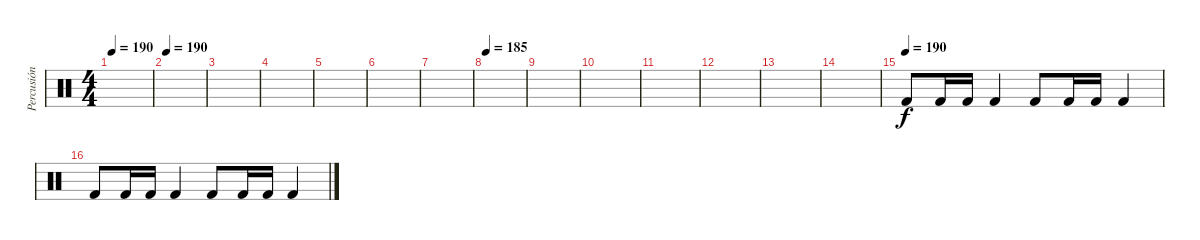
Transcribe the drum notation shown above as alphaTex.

\track ("Percusión" "Percusión") {instrument percussion}
\staff {score}
\articulation defaults
\ts (4 4)
\tempo 190
\clef neutral
\ks c
|
\tempo 190
|
|
|
|
|
|
\tempo 185
|
|
|
|
|
|
|
\tempo (190)
"Kick (hit) 2".8 "Kick (hit) 2".16 "Kick (hit) 2".16 "Kick (hit) 2".4 "Kick (hit) 2".8 "Kick (hit) 2".16 "Kick (hit) 2".16 "Kick (hit) 2".4 |
"Kick (hit) 2".8 "Kick (hit) 2".16 "Kick (hit) 2".16 "Kick (hit) 2".4 "Kick (hit) 2".8 "Kick (hit) 2".16 "Kick (hit) 2".16 "Kick (hit) 2".4
